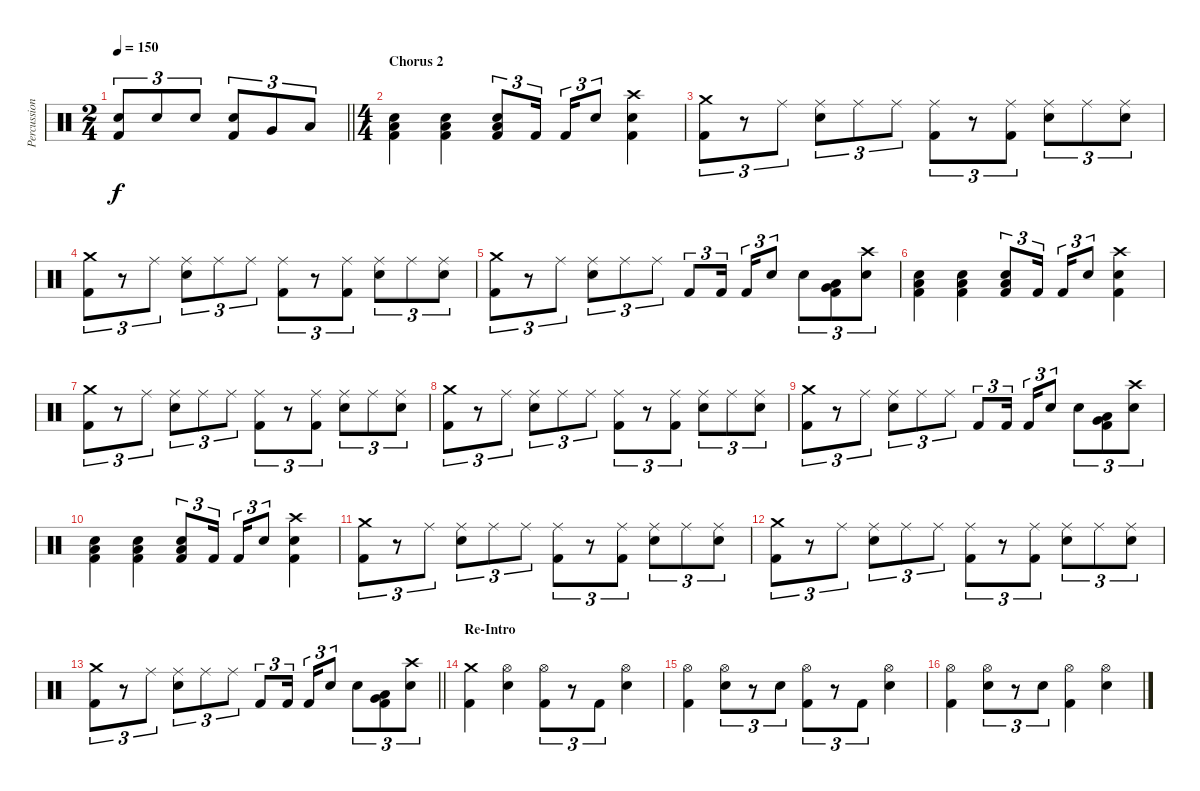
\track ("Percussion" "Percussion") {instrument percussion}
\staff {score}
\articulation defaults
\ts (2 4)
\tempo 150
\clef neutral
\barLineRight lightlight
\ks c
("Electric Snare (hit)" "Kick (hit) 2").8{tu (3 2) dy f} "Electric Snare (hit)".8{tu (3 2)} "Electric Snare (hit)".8{tu (3 2)} ("Electric Snare (hit)" "Kick (hit) 2").8{tu (3 2)} "Very Low Tom (hit)".8{tu (3 2)} "Low Floor Tom (hit)".8{tu (3 2)} |
\ts (4 4)
\section ("" "Chorus 2")
("Electric Snare (hit)" "Low Floor Tom (hit)" "Kick (hit) 2").4 ("Electric Snare (hit)" "Low Floor Tom (hit)" "Kick (hit) 2").4 ("Electric Snare (hit)" "Low Floor Tom (hit)" "Kick (hit) 2").8{tu (3 2)} "Kick (hit) 2".16{tu (3 2) beam splitsecondary} "Kick (hit) 2".16{tu (3 2)} "Electric Snare (hit)".8{tu (3 2)} ("Crash high (hit)" "Electric Snare (hit)" "Kick (hit) 2").4 |
("Crash medium (hit)" "Kick (hit) 2").8{tu (3 2)} r.8{tu (3 2)} "Ride (middle)".8{tu (3 2)} ("Ride (middle)" "Electric Snare (hit)").8{tu (3 2)} "Ride (middle)".8{tu (3 2)} "Ride (middle)".8{tu (3 2)} ("Ride (middle)" "Kick (hit) 2").8{tu (3 2)} r.8{tu (3 2)} ("Ride (middle)" "Kick (hit) 2").8{tu (3 2)} ("Ride (middle)" "Electric Snare (hit)").8{tu (3 2)} "Ride (middle)".8{tu (3 2)} ("Ride (middle)" "Electric Snare (hit)").8{tu (3 2)} |
("Crash medium (hit)" "Kick (hit) 2").8{tu (3 2)} r.8{tu (3 2)} "Ride (middle)".8{tu (3 2)} ("Ride (middle)" "Electric Snare (hit)").8{tu (3 2)} "Ride (middle)".8{tu (3 2)} "Ride (middle)".8{tu (3 2)} ("Ride (middle)" "Kick (hit) 2").8{tu (3 2)} r.8{tu (3 2)} ("Ride (middle)" "Kick (hit) 2").8{tu (3 2)} ("Ride (middle)" "Electric Snare (hit)").8{tu (3 2)} "Ride (middle)".8{tu (3 2)} ("Ride (middle)" "Electric Snare (hit)").8{tu (3 2)} |
("Crash medium (hit)" "Kick (hit) 2").8{tu (3 2)} r.8{tu (3 2)} "Ride (middle)".8{tu (3 2)} ("Ride (middle)" "Electric Snare (hit)").8{tu (3 2)} "Ride (middle)".8{tu (3 2)} "Ride (middle)".8{tu (3 2)} "Kick (hit) 2".8{tu (3 2)} "Kick (hit) 2".16{tu (3 2) beam splitsecondary} "Kick (hit) 2".16{tu (3 2)} "Electric Snare (hit)".8{tu (3 2)} "Electric Snare (hit)".8{tu (3 2)} ("Very Low Tom (hit)" "Low Floor Tom (hit)" "Kick (hit) 2").8{tu (3 2)} ("Crash high (hit)" "Electric Snare (hit)").8{tu (3 2)} |
("Electric Snare (hit)" "Low Floor Tom (hit)" "Kick (hit) 2").4 ("Electric Snare (hit)" "Low Floor Tom (hit)" "Kick (hit) 2").4 ("Electric Snare (hit)" "Low Floor Tom (hit)" "Kick (hit) 2").8{tu (3 2)} "Kick (hit) 2".16{tu (3 2) beam splitsecondary} "Kick (hit) 2".16{tu (3 2)} "Electric Snare (hit)".8{tu (3 2)} ("Crash high (hit)" "Electric Snare (hit)" "Kick (hit) 2").4 |
("Crash medium (hit)" "Kick (hit) 2").8{tu (3 2)} r.8{tu (3 2)} "Ride (middle)".8{tu (3 2)} ("Ride (middle)" "Electric Snare (hit)").8{tu (3 2)} "Ride (middle)".8{tu (3 2)} "Ride (middle)".8{tu (3 2)} ("Ride (middle)" "Kick (hit) 2").8{tu (3 2)} r.8{tu (3 2)} ("Ride (middle)" "Kick (hit) 2").8{tu (3 2)} ("Ride (middle)" "Electric Snare (hit)").8{tu (3 2)} "Ride (middle)".8{tu (3 2)} ("Ride (middle)" "Electric Snare (hit)").8{tu (3 2)} |
("Crash medium (hit)" "Kick (hit) 2").8{tu (3 2)} r.8{tu (3 2)} "Ride (middle)".8{tu (3 2)} ("Ride (middle)" "Electric Snare (hit)").8{tu (3 2)} "Ride (middle)".8{tu (3 2)} "Ride (middle)".8{tu (3 2)} ("Ride (middle)" "Kick (hit) 2").8{tu (3 2)} r.8{tu (3 2)} ("Ride (middle)" "Kick (hit) 2").8{tu (3 2)} ("Ride (middle)" "Electric Snare (hit)").8{tu (3 2)} "Ride (middle)".8{tu (3 2)} ("Ride (middle)" "Electric Snare (hit)").8{tu (3 2)} |
("Crash medium (hit)" "Kick (hit) 2").8{tu (3 2)} r.8{tu (3 2)} "Ride (middle)".8{tu (3 2)} ("Ride (middle)" "Electric Snare (hit)").8{tu (3 2)} "Ride (middle)".8{tu (3 2)} "Ride (middle)".8{tu (3 2)} "Kick (hit) 2".8{tu (3 2)} "Kick (hit) 2".16{tu (3 2) beam splitsecondary} "Kick (hit) 2".16{tu (3 2)} "Electric Snare (hit)".8{tu (3 2)} "Electric Snare (hit)".8{tu (3 2)} ("Very Low Tom (hit)" "Low Floor Tom (hit)" "Kick (hit) 2").8{tu (3 2)} ("Crash high (hit)" "Electric Snare (hit)").8{tu (3 2)} |
("Electric Snare (hit)" "Low Floor Tom (hit)" "Kick (hit) 2").4 ("Electric Snare (hit)" "Low Floor Tom (hit)" "Kick (hit) 2").4 ("Electric Snare (hit)" "Low Floor Tom (hit)" "Kick (hit) 2").8{tu (3 2)} "Kick (hit) 2".16{tu (3 2) beam splitsecondary} "Kick (hit) 2".16{tu (3 2)} "Electric Snare (hit)".8{tu (3 2)} ("Crash high (hit)" "Electric Snare (hit)" "Kick (hit) 2").4 |
("Crash medium (hit)" "Kick (hit) 2").8{tu (3 2)} r.8{tu (3 2)} "Ride (middle)".8{tu (3 2)} ("Ride (middle)" "Electric Snare (hit)").8{tu (3 2)} "Ride (middle)".8{tu (3 2)} "Ride (middle)".8{tu (3 2)} ("Ride (middle)" "Kick (hit) 2").8{tu (3 2)} r.8{tu (3 2)} ("Ride (middle)" "Kick (hit) 2").8{tu (3 2)} ("Ride (middle)" "Electric Snare (hit)").8{tu (3 2)} "Ride (middle)".8{tu (3 2)} ("Ride (middle)" "Electric Snare (hit)").8{tu (3 2)} |
("Crash medium (hit)" "Kick (hit) 2").8{tu (3 2)} r.8{tu (3 2)} "Ride (middle)".8{tu (3 2)} ("Ride (middle)" "Electric Snare (hit)").8{tu (3 2)} "Ride (middle)".8{tu (3 2)} "Ride (middle)".8{tu (3 2)} ("Ride (middle)" "Kick (hit) 2").8{tu (3 2)} r.8{tu (3 2)} ("Ride (middle)" "Kick (hit) 2").8{tu (3 2)} ("Ride (middle)" "Electric Snare (hit)").8{tu (3 2)} "Ride (middle)".8{tu (3 2)} ("Ride (middle)" "Electric Snare (hit)").8{tu (3 2)} |
\barLineRight lightlight
("Crash medium (hit)" "Kick (hit) 2").8{tu (3 2)} r.8{tu (3 2)} "Ride (middle)".8{tu (3 2)} ("Ride (middle)" "Electric Snare (hit)").8{tu (3 2)} "Ride (middle)".8{tu (3 2)} "Ride (middle)".8{tu (3 2)} "Kick (hit) 2".8{tu (3 2)} "Kick (hit) 2".16{tu (3 2) beam splitsecondary} "Kick (hit) 2".16{tu (3 2)} "Electric Snare (hit)".8{tu (3 2)} "Electric Snare (hit)".8{tu (3 2)} ("Very Low Tom (hit)" "Low Floor Tom (hit)" "Kick (hit) 2").8{tu (3 2)} ("Crash high (hit)" "Electric Snare (hit)").8{tu (3 2)} |
\section ("" "Re-Intro")
("Crash medium (hit)" "Kick (hit) 2").4 ("Hi-Hat (open)" "Electric Snare (hit)").4 ("Hi-Hat (open)" "Kick (hit) 2").8{tu (3 2)} r.8{tu (3 2)} "Kick (hit) 2".8{tu (3 2)} ("Hi-Hat (open)" "Electric Snare (hit)").4 |
("Hi-Hat (open)" "Kick (hit) 2").4 ("Hi-Hat (open)" "Electric Snare (hit)").8{tu (3 2)} r.8{tu (3 2)} "Electric Snare (hit)".8{tu (3 2)} ("Hi-Hat (open)" "Kick (hit) 2").8{tu (3 2)} r.8{tu (3 2)} "Kick (hit) 2".8{tu (3 2)} ("Hi-Hat (open)" "Electric Snare (hit)").4 |
("Hi-Hat (open)" "Kick (hit) 2").4 ("Hi-Hat (open)" "Electric Snare (hit)").8{tu (3 2)} r.8{tu (3 2)} "Electric Snare (hit)".8{tu (3 2)} ("Hi-Hat (open)" "Kick (hit) 2").4 ("Hi-Hat (open)" "Electric Snare (hit)").4
